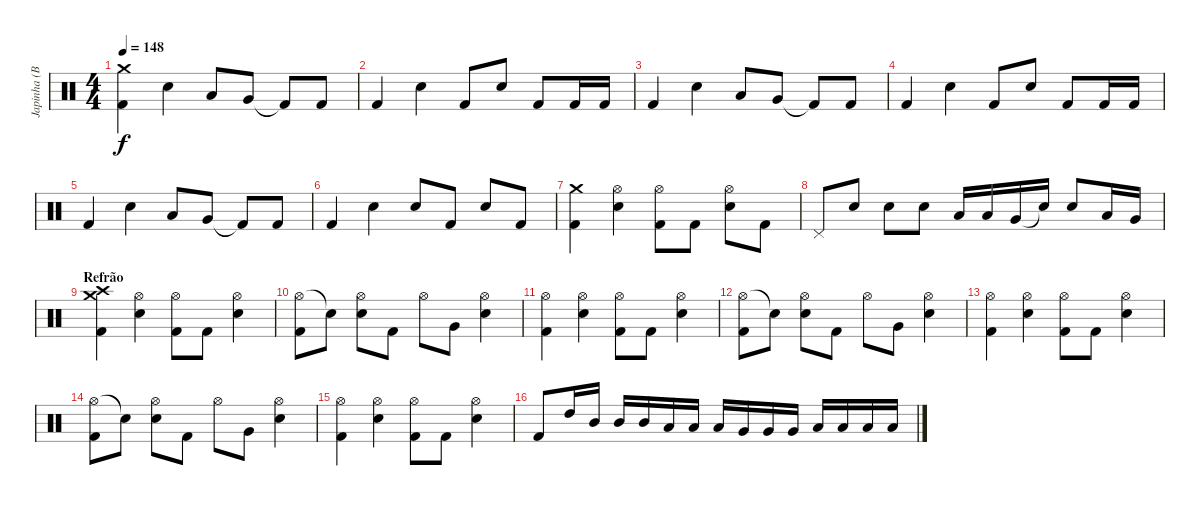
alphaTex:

\track ("Japinha (Bateria)" "Japinha (B") {instrument percussion}
\staff {score}
\articulation defaults
\ts (4 4)
\tempo 148
\clef neutral
\ks c
("Crash medium (hit)" "Kick (hit) 2").4{dy f} "Snare (hit) 2".4 "Low Tom (hit)".8 "Very Low Tom (hit)".8 "Kick (hit) 2"{t}.8 "Kick (hit) 2".8 |
"Kick (hit) 2".4 "Snare (hit) 2".4 "Kick (hit) 2".8 "Snare (hit) 2".8 "Kick (hit) 2".8 "Kick (hit) 2".16 "Kick (hit) 2".16 |
"Kick (hit) 2".4 "Snare (hit) 2".4 "Low Tom (hit)".8 "Very Low Tom (hit)".8 "Kick (hit) 2"{t}.8 "Kick (hit) 2".8 |
"Kick (hit) 2".4 "Snare (hit) 2".4 "Kick (hit) 2".8 "Snare (hit) 2".8 "Kick (hit) 2".8 "Kick (hit) 2".16 "Kick (hit) 2".16 |
"Kick (hit) 2".4 "Snare (hit) 2".4 "Low Tom (hit)".8 "Very Low Tom (hit)".8 "Kick (hit) 2"{t}.8 "Kick (hit) 2".8 |
"Kick (hit) 2".4 "Snare (hit) 2".4 "Snare (hit) 2".8 "Kick (hit) 2".8 "Snare (hit) 2".8 "Kick (hit) 2".8 |
("Crash medium (hit)" "Kick (hit) 2").4 ("Hi-Hat (open)" "Snare (hit) 2").4 ("Hi-Hat (open)" "Kick (hit) 2").8 "Kick (hit) 2".8 ("Hi-Hat (open)" "Snare (hit) 2").8 "Kick (hit) 2".8 |
"Pedal Hi-Hat (hit)".8 "Snare (hit) 2".8 "Snare (hit) 2".8 "Snare (hit) 2".8 "Low Tom (hit)".16 "Low Tom (hit)".16 "Very Low Tom (hit)".16 "Snare (hit)"{t}.16 "Snare (hit) 2".8 "Low Tom (hit)".16 "Very Low Tom (hit)".16 |
\section ("" "Refrão")
("Crash medium (hit)" "Crash high (hit)" "Kick (hit) 2").4 ("Hi-Hat (open)" "Snare (hit) 2").4 ("Hi-Hat (open)" "Kick (hit) 2").8 "Kick (hit) 2".8 ("Hi-Hat (open)" "Snare (hit) 2").4 |
("Hi-Hat (open)" "Kick (hit) 2").8 "Snare (hit)"{t}.8 ("Hi-Hat (open)" "Snare (hit) 2").8 "Kick (hit) 2".8 "Hi-Hat (open)".8 "Very Low Tom (hit)".8 ("Hi-Hat (open)" "Snare (hit) 2").4 |
("Hi-Hat (open)" "Kick (hit) 2").4 ("Hi-Hat (open)" "Snare (hit) 2").4 ("Hi-Hat (open)" "Kick (hit) 2").8 "Kick (hit) 2".8 ("Hi-Hat (open)" "Snare (hit) 2").4 |
("Hi-Hat (open)" "Kick (hit) 2").8 "Snare (hit)"{t}.8 ("Hi-Hat (open)" "Snare (hit) 2").8 "Kick (hit) 2".8 "Hi-Hat (open)".8 "Very Low Tom (hit)".8 ("Hi-Hat (open)" "Snare (hit) 2").4 |
("Hi-Hat (open)" "Kick (hit) 2").4 ("Hi-Hat (open)" "Snare (hit) 2").4 ("Hi-Hat (open)" "Kick (hit) 2").8 "Kick (hit) 2".8 ("Hi-Hat (open)" "Snare (hit) 2").4 |
("Hi-Hat (open)" "Kick (hit) 2").8 "Snare (hit)"{t}.8 ("Hi-Hat (open)" "Snare (hit) 2").8 "Kick (hit) 2".8 "Hi-Hat (open)".8 "Very Low Tom (hit)".8 ("Hi-Hat (open)" "Snare (hit) 2").4 |
("Hi-Hat (open)" "Kick (hit) 2").4 ("Hi-Hat (open)" "Snare (hit) 2").4 ("Hi-Hat (open)" "Kick (hit) 2").8 "Kick (hit) 2".8 ("Hi-Hat (open)" "Snare (hit) 2").4 |
"Kick (hit) 2".8 "High Tom (hit)".16 "Mid Tom (hit)".16 "Mid Tom (hit)".16 "Mid Tom (hit)".16 "Low Tom (hit)".16 "Low Tom (hit)".16 "Low Tom (hit)".16 "Very Low Tom (hit)".16 "Very Low Tom (hit)".16 "Very Low Tom (hit)".16 "Low Floor Tom (hit)".16 "Low Floor Tom (hit)".16 "Low Floor Tom (hit)".16 "Low Floor Tom (hit)".16
